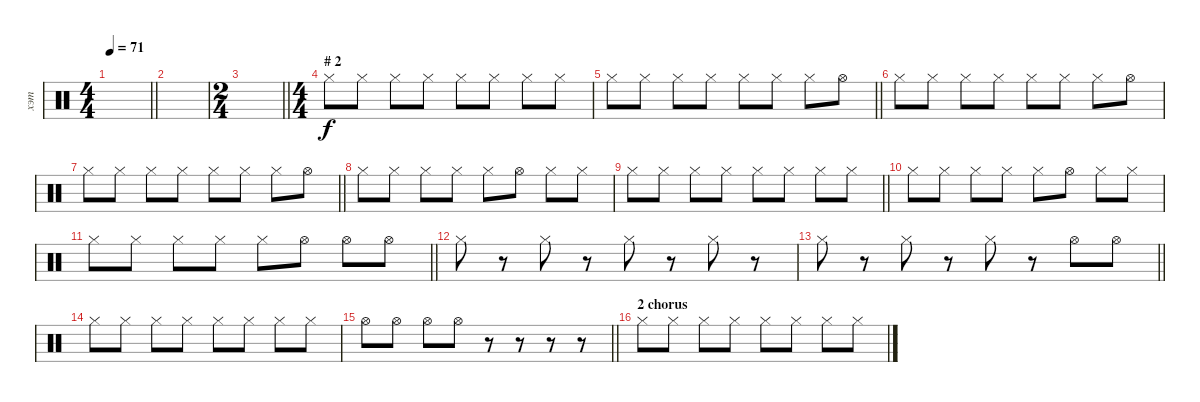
\track ("хэт" "хэт") {instrument percussion}
\staff {score}
\articulation defaults
\ts (4 4)
\tempo 71
\clef neutral
\barLineRight lightlight
\ks c
|
|
\ts (2 4)
\barLineRight lightlight
|
\ts (4 4)
\section ("" "# 2")
"Hi-Hat (closed)".8 "Hi-Hat (closed)".8 "Hi-Hat (closed)".8 "Hi-Hat (closed)".8 "Hi-Hat (closed)".8 "Hi-Hat (closed)".8 "Hi-Hat (closed)".8 "Hi-Hat (closed)".8 |
\barLineRight lightlight "Hi-Hat (closed)".8 "Hi-Hat (closed)".8 "Hi-Hat (closed)".8 "Hi-Hat (closed)".8 "Hi-Hat (closed)".8 "Hi-Hat (closed)".8 "Hi-Hat (closed)".8 "Hi-Hat (open)".8
|
"Hi-Hat (closed)".8 "Hi-Hat (closed)".8 "Hi-Hat (closed)".8 "Hi-Hat (closed)".8 "Hi-Hat (closed)".8 "Hi-Hat (closed)".8 "Hi-Hat (closed)".8 "Hi-Hat (open)".8 |
\barLineRight lightlight "Hi-Hat (closed)".8 "Hi-Hat (closed)".8 "Hi-Hat (closed)".8 "Hi-Hat (closed)".8 "Hi-Hat (closed)".8 "Hi-Hat (closed)".8 "Hi-Hat (closed)".8 "Hi-Hat (open)".8
|
"Hi-Hat (closed)".8 "Hi-Hat (closed)".8 "Hi-Hat (closed)".8 "Hi-Hat (closed)".8 "Hi-Hat (closed)".8 "Hi-Hat (open)".8 "Hi-Hat (closed)".8 "Hi-Hat (closed)".8 |
\barLineRight lightlight "Hi-Hat (closed)".8 "Hi-Hat (closed)".8 "Hi-Hat (closed)".8 "Hi-Hat (closed)".8 "Hi-Hat (closed)".8 "Hi-Hat (closed)".8 "Hi-Hat (closed)".8 "Hi-Hat (closed)".8
|
"Hi-Hat (closed)".8 "Hi-Hat (closed)".8 "Hi-Hat (closed)".8 "Hi-Hat (closed)".8 "Hi-Hat (closed)".8 "Hi-Hat (open)".8 "Hi-Hat (closed)".8 "Hi-Hat (closed)".8 |
\barLineRight lightlight "Hi-Hat (closed)".8 "Hi-Hat (closed)".8 "Hi-Hat (closed)".8 "Hi-Hat (closed)".8 "Hi-Hat (closed)".8 "Hi-Hat (open)".8 "Hi-Hat (open)".8 "Hi-Hat (open)".8
|
"Hi-Hat (closed)".8 r.8 "Hi-Hat (closed)".8 r.8 "Hi-Hat (closed)".8 r.8 "Hi-Hat (closed)".8 r.8 |
\barLineRight lightlight "Hi-Hat (closed)".8
r.8 "Hi-Hat (closed)".8 r.8 "Hi-Hat (closed)".8 r.8 "Hi-Hat (open)".8 "Hi-Hat (open)".8 |
"Hi-Hat (closed)".8 "Hi-Hat (closed)".8 "Hi-Hat (closed)".8 "Hi-Hat (closed)".8 "Hi-Hat (closed)".8 "Hi-Hat (closed)".8 "Hi-Hat (closed)".8 "Hi-Hat (closed)".8 |
\barLineRight lightlight "Hi-Hat (open)".8 "Hi-Hat (open)".8 "Hi-Hat (open)".8 "Hi-Hat (open)".8
r.8 r.8 r.8 r.8 |
\section ("" "2 chorus")
"Hi-Hat (closed)".8 "Hi-Hat (closed)".8 "Hi-Hat (closed)".8 "Hi-Hat (closed)".8 "Hi-Hat (closed)".8 "Hi-Hat (closed)".8 "Hi-Hat (closed)".8 "Hi-Hat (closed)".8
